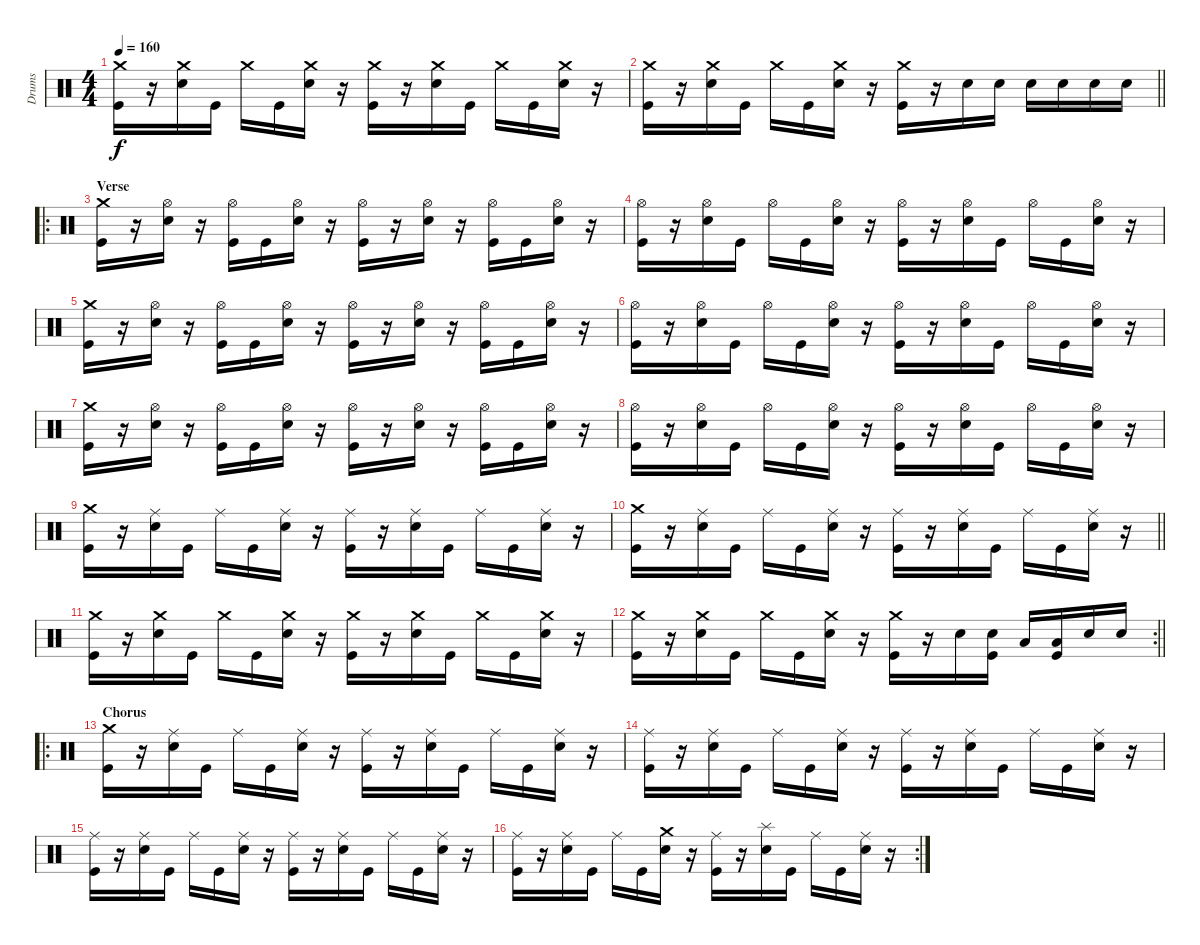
\track ("Drums" "Drums") {instrument percussion}
\staff {score}
\articulation defaults
\ts (4 4)
\tempo 160
\clef neutral
\ks c
("Crash medium (hit)" "Kick (hit)").16{dy f} r.16 ("Crash medium (hit)" "Electric Snare (hit)").16 "Kick (hit)".16 "Crash medium (hit)".16 "Kick (hit)".16 ("Crash medium (hit)" "Electric Snare (hit)").16 r.16 ("Crash medium (hit)" "Kick (hit)").16 r.16 ("Crash medium (hit)" "Electric Snare (hit)").16 "Kick (hit)".16 "Crash medium (hit)".16 "Kick (hit)".16 ("Crash medium (hit)" "Electric Snare (hit)").16 r.16 |
\barLineRight lightlight
("Crash medium (hit)" "Kick (hit)").16 r.16 ("Crash medium (hit)" "Electric Snare (hit)").16 "Kick (hit)".16 "Crash medium (hit)".16 "Kick (hit)".16 ("Crash medium (hit)" "Electric Snare (hit)").16 r.16 ("Crash medium (hit)" "Kick (hit)").16 r.16 "Electric Snare (hit)".16 "Electric Snare (hit)".16 "Electric Snare (hit)".16 "Electric Snare (hit)".16 "Electric Snare (hit)".16 "Electric Snare (hit)".16 |
\ro
\section ("" "Verse")
("Crash medium (hit)" "Kick (hit)").16 r.16 ("Hi-Hat (open)" "Electric Snare (hit)").16 r.16 ("Hi-Hat (open)" "Kick (hit)").16 "Kick (hit)".16 ("Hi-Hat (open)" "Electric Snare (hit)").16 r.16 ("Hi-Hat (open)" "Kick (hit)").16 r.16 ("Hi-Hat (open)" "Electric Snare (hit)").16 r.16 ("Hi-Hat (open)" "Kick (hit)").16 "Kick (hit)".16 ("Hi-Hat (open)" "Electric Snare (hit)").16 r.16 |
("Hi-Hat (open)" "Kick (hit)").16 r.16 ("Hi-Hat (open)" "Electric Snare (hit)").16 "Kick (hit)".16 "Hi-Hat (open)".16 "Kick (hit)".16 ("Hi-Hat (open)" "Electric Snare (hit)").16 r.16 ("Hi-Hat (open)" "Kick (hit)").16 r.16 ("Hi-Hat (open)" "Electric Snare (hit)").16 "Kick (hit)".16 "Hi-Hat (open)".16 "Kick (hit)".16 ("Hi-Hat (open)" "Electric Snare (hit)").16 r.16 |
("Crash medium (hit)" "Kick (hit)").16 r.16 ("Hi-Hat (open)" "Electric Snare (hit)").16 r.16 ("Hi-Hat (open)" "Kick (hit)").16 "Kick (hit)".16 ("Hi-Hat (open)" "Electric Snare (hit)").16 r.16 ("Hi-Hat (open)" "Kick (hit)").16 r.16 ("Hi-Hat (open)" "Electric Snare (hit)").16 r.16 ("Hi-Hat (open)" "Kick (hit)").16 "Kick (hit)".16 ("Hi-Hat (open)" "Electric Snare (hit)").16 r.16 |
("Hi-Hat (open)" "Kick (hit)").16 r.16 ("Hi-Hat (open)" "Electric Snare (hit)").16 "Kick (hit)".16 "Hi-Hat (open)".16 "Kick (hit)".16 ("Hi-Hat (open)" "Electric Snare (hit)").16 r.16 ("Hi-Hat (open)" "Kick (hit)").16 r.16 ("Hi-Hat (open)" "Electric Snare (hit)").16 "Kick (hit)".16 "Hi-Hat (open)".16 "Kick (hit)".16 ("Hi-Hat (open)" "Electric Snare (hit)").16 r.16 |
("Crash medium (hit)" "Kick (hit)").16 r.16 ("Hi-Hat (open)" "Electric Snare (hit)").16 r.16 ("Hi-Hat (open)" "Kick (hit)").16 "Kick (hit)".16 ("Hi-Hat (open)" "Electric Snare (hit)").16 r.16 ("Hi-Hat (open)" "Kick (hit)").16 r.16 ("Hi-Hat (open)" "Electric Snare (hit)").16 r.16 ("Hi-Hat (open)" "Kick (hit)").16 "Kick (hit)".16 ("Hi-Hat (open)" "Electric Snare (hit)").16 r.16 |
("Hi-Hat (open)" "Kick (hit)").16 r.16 ("Hi-Hat (open)" "Electric Snare (hit)").16 "Kick (hit)".16 "Hi-Hat (open)".16 "Kick (hit)".16 ("Hi-Hat (open)" "Electric Snare (hit)").16 r.16 ("Hi-Hat (open)" "Kick (hit)").16 r.16 ("Hi-Hat (open)" "Electric Snare (hit)").16 "Kick (hit)".16 "Hi-Hat (open)".16 "Kick (hit)".16 ("Hi-Hat (open)" "Electric Snare (hit)").16 r.16 |
("Crash medium (hit)" "Kick (hit)").16 r.16 ("Ride (middle)" "Electric Snare (hit)").16 "Kick (hit)".16 "Ride (middle)".16 "Kick (hit)".16 ("Ride (middle)" "Electric Snare (hit)").16 r.16 ("Ride (middle)" "Kick (hit)").16 r.16 ("Ride (middle)" "Electric Snare (hit)").16 "Kick (hit)".16 "Ride (middle)".16 "Kick (hit)".16 ("Ride (middle)" "Electric Snare (hit)").16 r.16 |
\barLineRight lightlight
("Crash medium (hit)" "Kick (hit)").16 r.16 ("Ride (middle)" "Electric Snare (hit)").16 "Kick (hit)".16 "Ride (middle)".16 "Kick (hit)".16 ("Ride (middle)" "Electric Snare (hit)").16 r.16 ("Ride (middle)" "Kick (hit)").16 r.16 ("Ride (middle)" "Electric Snare (hit)").16 "Kick (hit)".16 "Ride (middle)".16 "Kick (hit)".16 ("Ride (middle)" "Electric Snare (hit)").16 r.16 |
("Crash medium (hit)" "Kick (hit)").16 r.16 ("Crash medium (hit)" "Electric Snare (hit)").16 "Kick (hit)".16 "Crash medium (hit)".16 "Kick (hit)".16 ("Crash medium (hit)" "Electric Snare (hit)").16 r.16 ("Crash medium (hit)" "Kick (hit)").16 r.16 ("Crash medium (hit)" "Electric Snare (hit)").16 "Kick (hit)".16 "Crash medium (hit)".16 "Kick (hit)".16 ("Crash medium (hit)" "Electric Snare (hit)").16 r.16 |
\rc 2
\barLineRight lightlight
("Crash medium (hit)" "Kick (hit)").16 r.16 ("Crash medium (hit)" "Electric Snare (hit)").16 "Kick (hit)".16 "Crash medium (hit)".16 "Kick (hit)".16 ("Crash medium (hit)" "Electric Snare (hit)").16 r.16 ("Crash medium (hit)" "Kick (hit)").16 r.16 "Electric Snare (hit)".16 ("Electric Snare (hit)" "Kick (hit)").16 "Low Tom (hit)".16 ("Low Tom (hit)" "Kick (hit)").16 "Electric Snare (hit)".16 "Electric Snare (hit)".16 |
\ro
\section ("" "Chorus")
("Crash medium (hit)" "Kick (hit)").16 r.16 ("Ride (middle)" "Electric Snare (hit)").16 "Kick (hit)".16 "Ride (middle)".16 "Kick (hit)".16 ("Ride (middle)" "Electric Snare (hit)").16 r.16 ("Ride (middle)" "Kick (hit)").16 r.16 ("Ride (middle)" "Electric Snare (hit)").16 "Kick (hit)".16 "Ride (middle)".16 "Kick (hit)".16 ("Ride (middle)" "Electric Snare (hit)").16 r.16 |
("Ride (middle)" "Kick (hit)").16 r.16 ("Ride (middle)" "Electric Snare (hit)").16 "Kick (hit)".16 "Ride (middle)".16 "Kick (hit)".16 ("Ride (middle)" "Electric Snare (hit)").16 r.16 ("Ride (middle)" "Kick (hit)").16 r.16 ("Ride (middle)" "Electric Snare (hit)").16 "Kick (hit)".16 "Ride (middle)".16 "Kick (hit)".16 ("Ride (middle)" "Electric Snare (hit)").16 r.16 |
("Ride (middle)" "Kick (hit)").16 r.16 ("Ride (middle)" "Electric Snare (hit)").16 "Kick (hit)".16 "Ride (middle)".16 "Kick (hit)".16 ("Ride (middle)" "Electric Snare (hit)").16 r.16 ("Ride (middle)" "Kick (hit)").16 r.16 ("Ride (middle)" "Electric Snare (hit)").16 "Kick (hit)".16 "Ride (middle)".16 "Kick (hit)".16 ("Ride (middle)" "Electric Snare (hit)").16 r.16 |
\rc 2
("Ride (middle)" "Kick (hit)").16 r.16 ("Ride (middle)" "Electric Snare (hit)").16 "Kick (hit)".16 "Ride (middle)".16 "Kick (hit)".16 ("Crash medium (hit)" "Electric Snare (hit)").16 r.16 ("Ride (middle)" "Kick (hit)").16 r.16 ("Splash (hit)" "Electric Snare (hit)").16 "Kick (hit)".16 "Ride (middle)".16 "Kick (hit)".16 ("Ride (middle)" "Electric Snare (hit)").16 r.16
